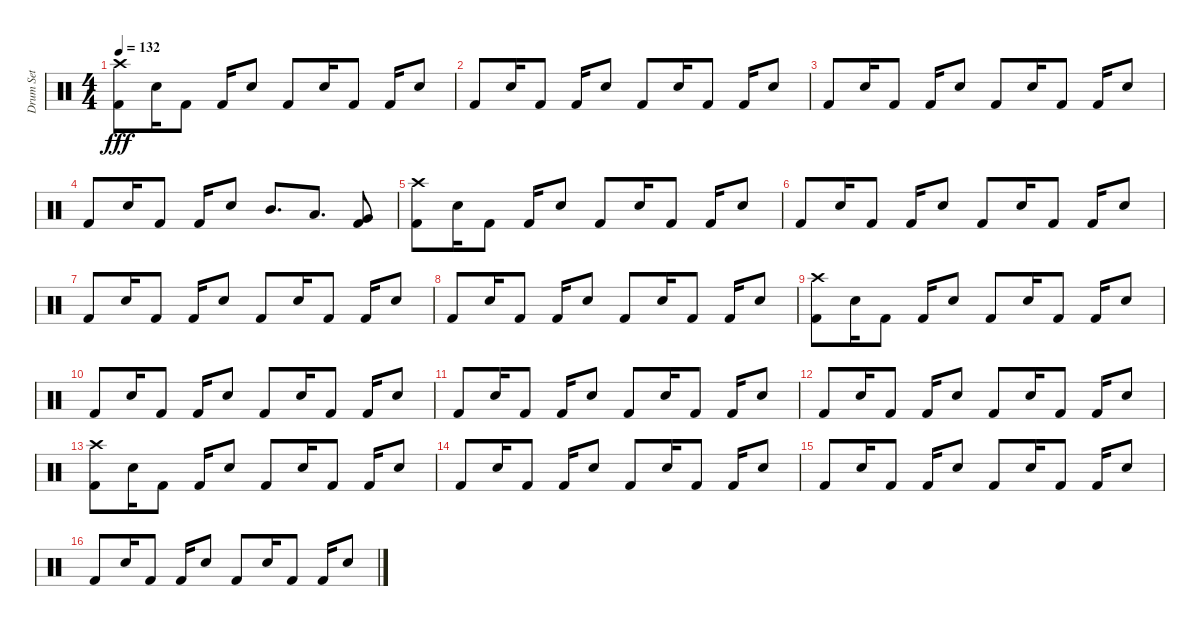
\track ("Drum Set" "Drum Set") {instrument percussion}
\staff {score}
\articulation defaults
\ts (4 4)
\tempo 132
\clef neutral
\ks c
("Kick (hit) 2" "Crash high (hit)").8{dy fff} "Electric Snare (hit)".16 "Kick (hit) 2".8 "Kick (hit) 2".16 "Electric Snare (hit)".8 "Kick (hit) 2".8 "Electric Snare (hit)".16 "Kick (hit) 2".8 "Kick (hit) 2".16 "Electric Snare (hit)".8 |
"Kick (hit) 2".8 "Electric Snare (hit)".16 "Kick (hit) 2".8 "Kick (hit) 2".16 "Electric Snare (hit)".8 "Kick (hit) 2".8 "Electric Snare (hit)".16 "Kick (hit) 2".8 "Kick (hit) 2".16 "Electric Snare (hit)".8 |
"Kick (hit) 2".8 "Electric Snare (hit)".16 "Kick (hit) 2".8 "Kick (hit) 2".16 "Electric Snare (hit)".8 "Kick (hit) 2".8 "Electric Snare (hit)".16 "Kick (hit) 2".8 "Kick (hit) 2".16 "Electric Snare (hit)".8 |
"Kick (hit) 2".8 "Electric Snare (hit)".16 "Kick (hit) 2".8 "Kick (hit) 2".16 "Electric Snare (hit)".8 "Mid Tom (hit)".8{d} "Low Tom (hit)".8{d} ("Kick (hit) 2" "Very Low Tom (hit)").8 |
("Kick (hit) 2" "Crash high (hit)").8 "Electric Snare (hit)".16 "Kick (hit) 2".8 "Kick (hit) 2".16 "Electric Snare (hit)".8 "Kick (hit) 2".8 "Electric Snare (hit)".16 "Kick (hit) 2".8 "Kick (hit) 2".16 "Electric Snare (hit)".8 |
"Kick (hit) 2".8 "Electric Snare (hit)".16 "Kick (hit) 2".8 "Kick (hit) 2".16 "Electric Snare (hit)".8 "Kick (hit) 2".8 "Electric Snare (hit)".16 "Kick (hit) 2".8 "Kick (hit) 2".16 "Electric Snare (hit)".8 |
"Kick (hit) 2".8 "Electric Snare (hit)".16 "Kick (hit) 2".8 "Kick (hit) 2".16 "Electric Snare (hit)".8 "Kick (hit) 2".8 "Electric Snare (hit)".16 "Kick (hit) 2".8 "Kick (hit) 2".16 "Electric Snare (hit)".8 |
"Kick (hit) 2".8 "Electric Snare (hit)".16 "Kick (hit) 2".8 "Kick (hit) 2".16 "Electric Snare (hit)".8 "Kick (hit) 2".8 "Electric Snare (hit)".16 "Kick (hit) 2".8 "Kick (hit) 2".16 "Electric Snare (hit)".8 |
("Kick (hit) 2" "Crash high (hit)").8 "Electric Snare (hit)".16 "Kick (hit) 2".8 "Kick (hit) 2".16 "Electric Snare (hit)".8 "Kick (hit) 2".8 "Electric Snare (hit)".16 "Kick (hit) 2".8 "Kick (hit) 2".16 "Electric Snare (hit)".8 |
"Kick (hit) 2".8 "Electric Snare (hit)".16 "Kick (hit) 2".8 "Kick (hit) 2".16 "Electric Snare (hit)".8 "Kick (hit) 2".8 "Electric Snare (hit)".16 "Kick (hit) 2".8 "Kick (hit) 2".16 "Electric Snare (hit)".8 |
"Kick (hit) 2".8 "Electric Snare (hit)".16 "Kick (hit) 2".8 "Kick (hit) 2".16 "Electric Snare (hit)".8 "Kick (hit) 2".8 "Electric Snare (hit)".16 "Kick (hit) 2".8 "Kick (hit) 2".16 "Electric Snare (hit)".8 |
"Kick (hit) 2".8 "Electric Snare (hit)".16 "Kick (hit) 2".8 "Kick (hit) 2".16 "Electric Snare (hit)".8 "Kick (hit) 2".8 "Electric Snare (hit)".16 "Kick (hit) 2".8 "Kick (hit) 2".16 "Electric Snare (hit)".8 |
("Kick (hit) 2" "Crash high (hit)").8 "Electric Snare (hit)".16 "Kick (hit) 2".8 "Kick (hit) 2".16 "Electric Snare (hit)".8 "Kick (hit) 2".8 "Electric Snare (hit)".16 "Kick (hit) 2".8 "Kick (hit) 2".16 "Electric Snare (hit)".8 |
"Kick (hit) 2".8 "Electric Snare (hit)".16 "Kick (hit) 2".8 "Kick (hit) 2".16 "Electric Snare (hit)".8 "Kick (hit) 2".8 "Electric Snare (hit)".16 "Kick (hit) 2".8 "Kick (hit) 2".16 "Electric Snare (hit)".8 |
"Kick (hit) 2".8 "Electric Snare (hit)".16 "Kick (hit) 2".8 "Kick (hit) 2".16 "Electric Snare (hit)".8 "Kick (hit) 2".8 "Electric Snare (hit)".16 "Kick (hit) 2".8 "Kick (hit) 2".16 "Electric Snare (hit)".8 |
"Kick (hit) 2".8 "Electric Snare (hit)".16 "Kick (hit) 2".8 "Kick (hit) 2".16 "Electric Snare (hit)".8 "Kick (hit) 2".8 "Electric Snare (hit)".16 "Kick (hit) 2".8 "Kick (hit) 2".16 "Electric Snare (hit)".8
